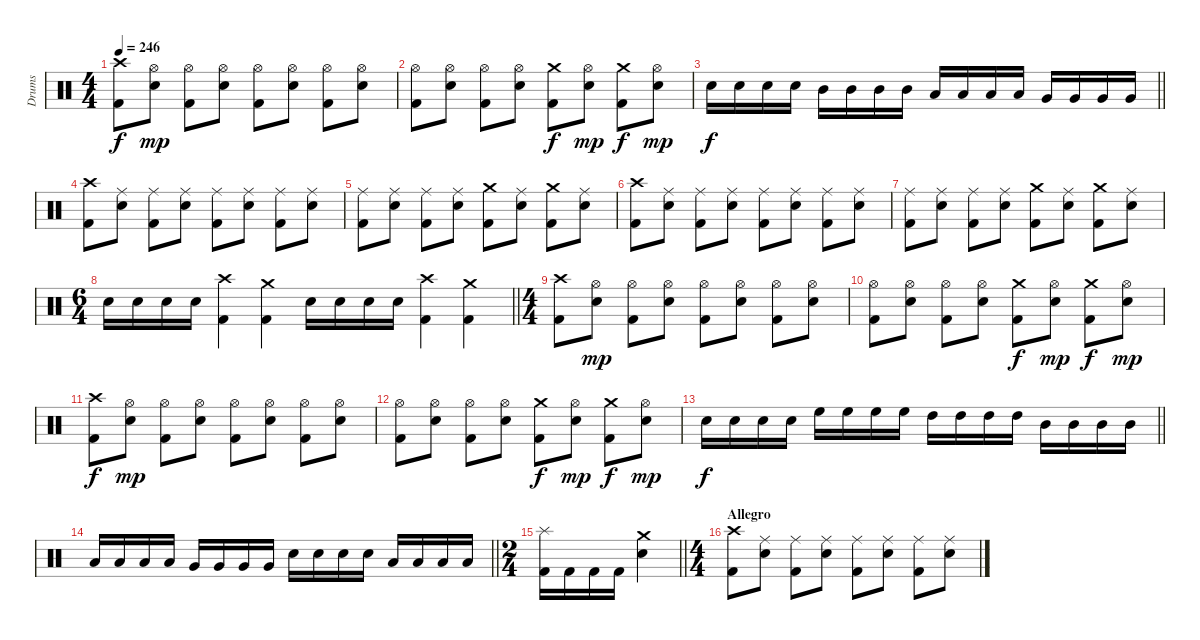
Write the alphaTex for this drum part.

\track ("Drums" "Drums") {instrument percussion}
\staff {score}
\articulation defaults
\ts (4 4)
\tempo 246
\clef neutral
\ks c
("Crash high (hit)" "Kick (hit) 2").8{dy f} ("Hi-Hat (open)" "Snare (hit) 2").8{dy mp} ("Hi-Hat (open)" "Kick (hit) 2").8 ("Hi-Hat (open)" "Snare (hit) 2").8 ("Hi-Hat (open)" "Kick (hit) 2").8 ("Hi-Hat (open)" "Snare (hit) 2").8 ("Hi-Hat (open)" "Kick (hit) 2").8 ("Hi-Hat (open)" "Snare (hit) 2").8 |
("Hi-Hat (open)" "Kick (hit) 2").8 ("Hi-Hat (open)" "Snare (hit) 2").8 ("Hi-Hat (open)" "Kick (hit) 2").8 ("Hi-Hat (open)" "Snare (hit) 2").8 ("Crash medium (hit)" "Kick (hit) 2").8{dy f} ("Hi-Hat (open)" "Snare (hit) 2").8{dy mp} ("Crash medium (hit)" "Kick (hit) 2").8{dy f} ("Hi-Hat (open)" "Snare (hit) 2").8{dy mp} |
\barLineRight lightlight "Snare (hit) 2".16{dy f} "Snare (hit) 2".16 "Snare (hit) 2".16 "Snare (hit) 2".16 "Mid Tom (hit)".16 "Mid Tom (hit)".16 "Mid Tom (hit)".16 "Mid Tom (hit)".16 "Low Tom (hit)".16 "Low Tom (hit)".16 "Low Tom (hit)".16 "Low Tom (hit)".16 "Very Low Tom (hit)".16 "Very Low Tom (hit)".16 "Very Low Tom (hit)".16 "Very Low Tom (hit)".16
|
\section ("" "")
("Crash high (hit)" "Kick (hit) 2").8 ("Ride (middle)" "Snare (hit) 2").8 ("Ride (middle)" "Kick (hit) 2").8 ("Ride (middle)" "Snare (hit) 2").8 ("Ride (middle)" "Kick (hit) 2").8 ("Ride (middle)" "Snare (hit) 2").8 ("Ride (middle)" "Kick (hit) 2").8 ("Ride (middle)" "Snare (hit) 2").8 |
("Ride (middle)" "Kick (hit) 2").8 ("Ride (middle)" "Snare (hit) 2").8 ("Ride (middle)" "Kick (hit) 2").8 ("Ride (middle)" "Snare (hit) 2").8 ("Crash medium (hit)" "Kick (hit) 2").8 ("Ride (middle)" "Snare (hit) 2").8 ("Crash medium (hit)" "Kick (hit) 2").8 ("Ride (middle)" "Snare (hit) 2").8 |
("Crash high (hit)" "Kick (hit) 2").8 ("Ride (middle)" "Snare (hit) 2").8 ("Ride (middle)" "Kick (hit) 2").8 ("Ride (middle)" "Snare (hit) 2").8 ("Ride (middle)" "Kick (hit) 2").8 ("Ride (middle)" "Snare (hit) 2").8 ("Ride (middle)" "Kick (hit) 2").8 ("Ride (middle)" "Snare (hit) 2").8 |
("Ride (middle)" "Kick (hit) 2").8 ("Ride (middle)" "Snare (hit) 2").8 ("Ride (middle)" "Kick (hit) 2").8 ("Ride (middle)" "Snare (hit) 2").8 ("Crash medium (hit)" "Kick (hit) 2").8 ("Ride (middle)" "Snare (hit) 2").8 ("Crash medium (hit)" "Kick (hit) 2").8 ("Ride (middle)" "Snare (hit) 2").8 |
\ts (6 4)
\barLineRight lightlight "Snare (hit) 2".16 "Snare (hit) 2".16 "Snare (hit) 2".16 "Snare (hit) 2".16
("Crash high (hit)" "Kick (hit) 2").4 ("Crash medium (hit)" "Kick (hit) 2").4 "Snare (hit) 2".16 "Snare (hit) 2".16 "Snare (hit) 2".16 "Snare (hit) 2".16 ("Crash high (hit)" "Kick (hit) 2").4 ("Crash medium (hit)" "Kick (hit) 2").4 |
\ts (4 4)
\section ("" "")
("Crash high (hit)" "Kick (hit) 2").8 ("Hi-Hat (open)" "Snare (hit) 2").8{dy mp} ("Hi-Hat (open)" "Kick (hit) 2").8 ("Hi-Hat (open)" "Snare (hit) 2").8 ("Hi-Hat (open)" "Kick (hit) 2").8 ("Hi-Hat (open)" "Snare (hit) 2").8 ("Hi-Hat (open)" "Kick (hit) 2").8 ("Hi-Hat (open)" "Snare (hit) 2").8 |
("Hi-Hat (open)" "Kick (hit) 2").8 ("Hi-Hat (open)" "Snare (hit) 2").8 ("Hi-Hat (open)" "Kick (hit) 2").8 ("Hi-Hat (open)" "Snare (hit) 2").8 ("Crash medium (hit)" "Kick (hit) 2").8{dy f} ("Hi-Hat (open)" "Snare (hit) 2").8{dy mp} ("Crash medium (hit)" "Kick (hit) 2").8{dy f} ("Hi-Hat (open)" "Snare (hit) 2").8{dy mp} |
("Crash high (hit)" "Kick (hit) 2").8{dy f} ("Hi-Hat (open)" "Snare (hit) 2").8{dy mp} ("Hi-Hat (open)" "Kick (hit) 2").8 ("Hi-Hat (open)" "Snare (hit) 2").8 ("Hi-Hat (open)" "Kick (hit) 2").8 ("Hi-Hat (open)" "Snare (hit) 2").8 ("Hi-Hat (open)" "Kick (hit) 2").8 ("Hi-Hat (open)" "Snare (hit) 2").8 |
("Hi-Hat (open)" "Kick (hit) 2").8 ("Hi-Hat (open)" "Snare (hit) 2").8 ("Hi-Hat (open)" "Kick (hit) 2").8 ("Hi-Hat (open)" "Snare (hit) 2").8 ("Crash medium (hit)" "Kick (hit) 2").8{dy f} ("Hi-Hat (open)" "Snare (hit) 2").8{dy mp} ("Crash medium (hit)" "Kick (hit) 2").8{dy f} ("Hi-Hat (open)" "Snare (hit) 2").8{dy mp} |
\barLineRight lightlight "Snare (hit) 2".16{dy f} "Snare (hit) 2".16 "Snare (hit) 2".16 "Snare (hit) 2".16 "High Floor Tom (hit)".16 "High Floor Tom (hit)".16 "High Floor Tom (hit)".16 "High Floor Tom (hit)".16 "High Tom (hit)".16 "High Tom (hit)".16 "High Tom (hit)".16 "High Tom (hit)".16 "Mid Tom (hit)".16 "Mid Tom (hit)".16 "Mid Tom (hit)".16 "Mid Tom (hit)".16
|
\barLineRight lightlight "Low Tom (hit)".16 "Low Tom (hit)".16 "Low Tom (hit)".16 "Low Tom (hit)".16 "Very Low Tom (hit)".16 "Very Low Tom (hit)".16 "Very Low Tom (hit)".16 "Very Low Tom (hit)".16 "Snare (hit) 2".16 "Snare (hit) 2".16 "Snare (hit) 2".16 "Snare (hit) 2".16 "Low Floor Tom (hit)".16 "Low Floor Tom (hit)".16 "Low Floor Tom (hit)".16 "Low Floor Tom (hit)".16
|
\ts (2 4)
\barLineRight lightlight
("Splash (hit)" "Kick (hit) 2").16 "Kick (hit) 2".16 "Kick (hit) 2".16 "Kick (hit) 2".16 ("Crash medium (hit)" "Snare (hit) 2").4 |
\ts (4 4)
\section ("" "Allegro")
("Crash high (hit)" "Kick (hit) 2").8 ("Ride (middle)" "Snare (hit) 2").8 ("Ride (middle)" "Kick (hit) 2").8 ("Ride (middle)" "Snare (hit) 2").8 ("Ride (middle)" "Kick (hit) 2").8 ("Ride (middle)" "Snare (hit) 2").8 ("Ride (middle)" "Kick (hit) 2").8 ("Ride (middle)" "Snare (hit) 2").8
